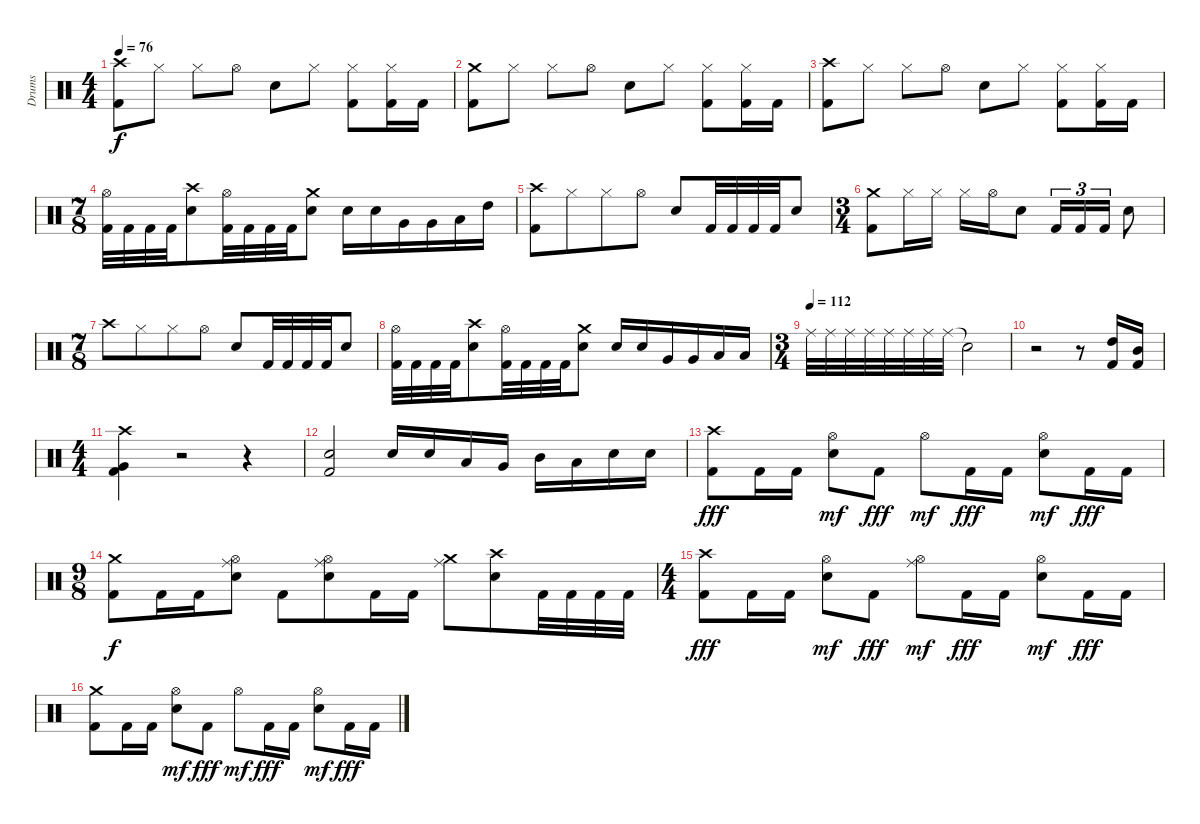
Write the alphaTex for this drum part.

\track ("Drums" "Drums") {instrument percussion}
\staff {score}
\articulation defaults
\ts (4 4)
\tempo 76
\clef neutral
\ks c
("Crash high (hit)" "Kick (hit) 2").8{dy f} "Hi-Hat (closed)".8 "Hi-Hat (closed)".8 "Hi-Hat (open)".8 "Electric Snare (hit)".8 "Hi-Hat (closed)".8 ("Hi-Hat (closed)" "Kick (hit) 2").8 ("Hi-Hat (closed)" "Kick (hit) 2").16 "Kick (hit) 2".16 |
("Crash medium (hit)" "Kick (hit) 2").8 "Hi-Hat (closed)".8 "Hi-Hat (closed)".8 "Hi-Hat (open)".8 "Electric Snare (hit)".8 "Hi-Hat (closed)".8 ("Hi-Hat (closed)" "Kick (hit) 2").8 ("Hi-Hat (closed)" "Kick (hit) 2").16 "Kick (hit) 2".16 |
("Crash high (hit)" "Kick (hit) 2").8 "Hi-Hat (closed)".8 "Hi-Hat (closed)".8 "Hi-Hat (open)".8 "Electric Snare (hit)".8 "Hi-Hat (closed)".8 ("Hi-Hat (closed)" "Kick (hit) 2").8 ("Hi-Hat (closed)" "Kick (hit) 2").16 "Kick (hit) 2".16 |
\ts (7 8)
("Hi-Hat (open)" "Kick (hit) 2").32 "Kick (hit) 2".32 "Kick (hit) 2".32 "Kick (hit) 2".32 ("Crash high (hit)" "Electric Snare (hit)").8 ("Hi-Hat (open)" "Kick (hit) 2").32 "Kick (hit) 2".32 "Kick (hit) 2".32 "Kick (hit) 2".32 ("Crash medium (hit)" "Electric Snare (hit)").8 "Electric Snare (hit)".16 "Electric Snare (hit)".16 "Very Low Tom (hit)".16 "Very Low Tom (hit)".16 "Low Tom (hit)".16 "High Tom (hit)".16 |
("Crash high (hit)" "Kick (hit) 2").8 "Hi-Hat (closed)".8 "Hi-Hat (closed)".8 "Hi-Hat (open)".8 "Electric Snare (hit)".8 "Kick (hit) 2".32 "Kick (hit) 2".32 "Kick (hit) 2".32 "Kick (hit) 2".32 "Electric Snare (hit)".8 |
\ts (3 4)
("Crash medium (hit)" "Kick (hit) 2").8 "Hi-Hat (closed)".16 "Hi-Hat (closed)".16 "Hi-Hat (closed)".16 "Hi-Hat (open)".16 "Electric Snare (hit)".8 "Kick (hit) 2".16{tu (3 2)} "Kick (hit) 2".16{tu (3 2)} "Kick (hit) 2".16{tu (3 2)} "Electric Snare (hit)".8 |
\ts (7 8)
"Crash high (hit)".8 "Hi-Hat (closed)".8 "Hi-Hat (closed)".8 "Hi-Hat (open)".8 "Electric Snare (hit)".8 "Kick (hit) 2".32 "Kick (hit) 2".32 "Kick (hit) 2".32 "Kick (hit) 2".32 "Electric Snare (hit)".8 |
("Hi-Hat (open)" "Kick (hit) 2").32 "Kick (hit) 2".32 "Kick (hit) 2".32 "Kick (hit) 2".32 ("Crash high (hit)" "Electric Snare (hit)").8 ("Hi-Hat (open)" "Kick (hit) 2").32 "Kick (hit) 2".32 "Kick (hit) 2".32 "Kick (hit) 2".32 ("Crash medium (hit)" "Electric Snare (hit)").8 "Electric Snare (hit)".16 "Electric Snare (hit)".16 "Very Low Tom (hit)".16 "Very Low Tom (hit)".16 "Low Tom (hit)".16 "Low Tom (hit)".16 |
\ts (3 4)
\tempo (112)
"Ride (middle)".32 "Ride (middle)".32 "Ride (middle)".32 "Ride (middle)".32 "Ride (middle)".32 "Ride (middle)".32 "Ride (middle)".32 "Ride (middle)".32 "Snare (hit)"{t}.2 |
r.2 r.8 ("High Tom (hit)" "Kick (hit) 2").16 ("Mid Tom (hit)" "Kick (hit) 2").16 |
\ts (4 4)
("Crash high (hit)" "Very Low Tom (hit)" "Kick (hit) 2").4 r.2 r.4 |
("Snare (hit) 2" "Kick (hit) 2").2 "Snare (hit) 2".16 "Snare (hit) 2".16 "Low Tom (hit)".16 "Very Low Tom (hit)".16 "Mid Tom (hit)".16 "Low Tom (hit)".16 "Snare (hit) 2".16 "Snare (hit) 2".16 |
("Crash high (hit)" "Kick (hit) 2").8{dy fff} "Kick (hit) 2".16 "Kick (hit) 2".16 ("Electric Snare (hit)" "Hi-Hat (open)").8{dy mf} "Kick (hit) 2".8{dy fff} "Hi-Hat (open)".8{dy mf} "Kick (hit) 2".16{dy fff} "Kick (hit) 2".16 ("Electric Snare (hit)" "Hi-Hat (open)").8{dy mf} "Kick (hit) 2".16{dy fff} "Kick (hit) 2".16 |
\ts (9 8)
("Crash medium (hit)" "Kick (hit) 2").8{dy f} "Kick (hit) 2".16 "Kick (hit) 2".16 ("Electric Snare (hit)" "Hi-Hat (open)" "Ride (middle)").8 "Kick (hit) 2".8 ("Hi-Hat (open)" "Electric Snare (hit)" "Ride (middle)").8 "Kick (hit) 2".16 "Kick (hit) 2".16 ("Crash medium (hit)" "Ride (middle)").8 ("Crash high (hit)" "Electric Snare (hit)").8 "Kick (hit) 2".32 "Kick (hit) 2".32 "Kick (hit) 2".32 "Kick (hit) 2".32 |
\ts (4 4)
("Crash high (hit)" "Kick (hit) 2").8{dy fff} "Kick (hit) 2".16 "Kick (hit) 2".16 ("Electric Snare (hit)" "Hi-Hat (open)").8{dy mf} "Kick (hit) 2".8{dy fff} ("Hi-Hat (open)" "Ride (middle)").8{dy mf} "Kick (hit) 2".16{dy fff} "Kick (hit) 2".16 ("Electric Snare (hit)" "Hi-Hat (open)").8{dy mf} "Kick (hit) 2".16{dy fff} "Kick (hit) 2".16 |
("Crash medium (hit)" "Kick (hit) 2").8 "Kick (hit) 2".16 "Kick (hit) 2".16 ("Electric Snare (hit)" "Hi-Hat (open)").8{dy mf} "Kick (hit) 2".8{dy fff} "Hi-Hat (open)".8{dy mf} "Kick (hit) 2".16{dy fff} "Kick (hit) 2".16 ("Electric Snare (hit)" "Hi-Hat (open)").8{dy mf} "Kick (hit) 2".16{dy fff} "Kick (hit) 2".16
